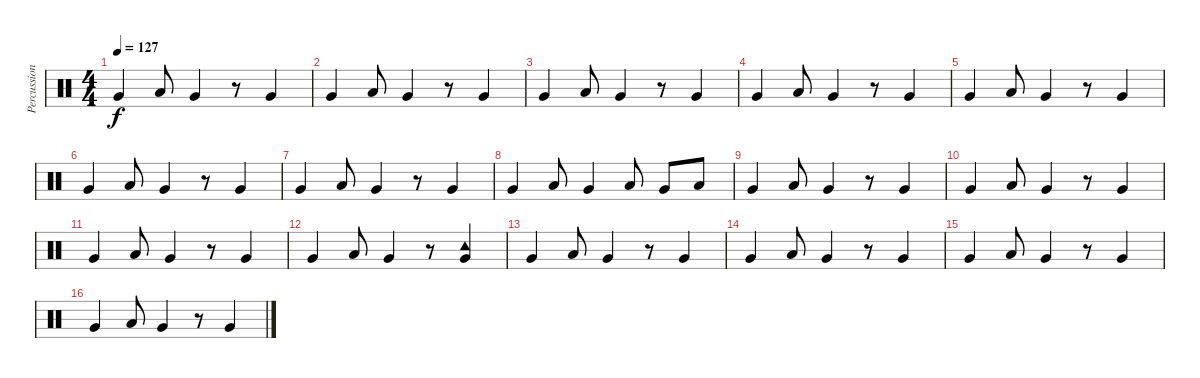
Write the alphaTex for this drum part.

\track ("Percussion" "Percussion") {instrument percussion}
\staff {score}
\articulation defaults
\ts (4 4)
\tempo 127
\clef neutral
\ks c "Very Low Tom (hit)".4{dy f} "Low Floor Tom (hit)".8 "Very Low Tom (hit)".4
r.8 "Very Low Tom (hit)".4 |
"Very Low Tom (hit)".4 "Low Floor Tom (hit)".8 "Very Low Tom (hit)".4 r.8 "Very Low Tom (hit)".4 |
"Very Low Tom (hit)".4 "Low Floor Tom (hit)".8 "Very Low Tom (hit)".4 r.8 "Very Low Tom (hit)".4 |
"Very Low Tom (hit)".4 "Low Floor Tom (hit)".8 "Very Low Tom (hit)".4 r.8 "Very Low Tom (hit)".4 |
"Very Low Tom (hit)".4 "Low Floor Tom (hit)".8 "Very Low Tom (hit)".4 r.8 "Very Low Tom (hit)".4 |
"Very Low Tom (hit)".4 "Low Floor Tom (hit)".8 "Very Low Tom (hit)".4 r.8 "Very Low Tom (hit)".4 |
"Very Low Tom (hit)".4 "Low Floor Tom (hit)".8 "Very Low Tom (hit)".4 r.8 "Very Low Tom (hit)".4 |
"Very Low Tom (hit)".4 "Low Floor Tom (hit)".8 "Very Low Tom (hit)".4 "Low Floor Tom (hit)".8 "Very Low Tom (hit)".8 "Low Floor Tom (hit)".8 |
"Very Low Tom (hit)".4 "Low Floor Tom (hit)".8 "Very Low Tom (hit)".4 r.8 "Very Low Tom (hit)".4 |
"Very Low Tom (hit)".4 "Low Floor Tom (hit)".8 "Very Low Tom (hit)".4 r.8 "Very Low Tom (hit)".4 |
"Very Low Tom (hit)".4 "Low Floor Tom (hit)".8 "Very Low Tom (hit)".4 r.8 "Very Low Tom (hit)".4 |
"Very Low Tom (hit)".4 "Low Floor Tom (hit)".8 "Very Low Tom (hit)".4 r.8 ("Very Low Tom (hit)" "Tambourine (hit)").4 |
"Very Low Tom (hit)".4 "Low Floor Tom (hit)".8 "Very Low Tom (hit)".4 r.8 "Very Low Tom (hit)".4 |
"Very Low Tom (hit)".4 "Low Floor Tom (hit)".8 "Very Low Tom (hit)".4 r.8 "Very Low Tom (hit)".4 |
"Very Low Tom (hit)".4 "Low Floor Tom (hit)".8 "Very Low Tom (hit)".4 r.8 "Very Low Tom (hit)".4 |
"Very Low Tom (hit)".4 "Low Floor Tom (hit)".8 "Very Low Tom (hit)".4 r.8 "Very Low Tom (hit)".4
